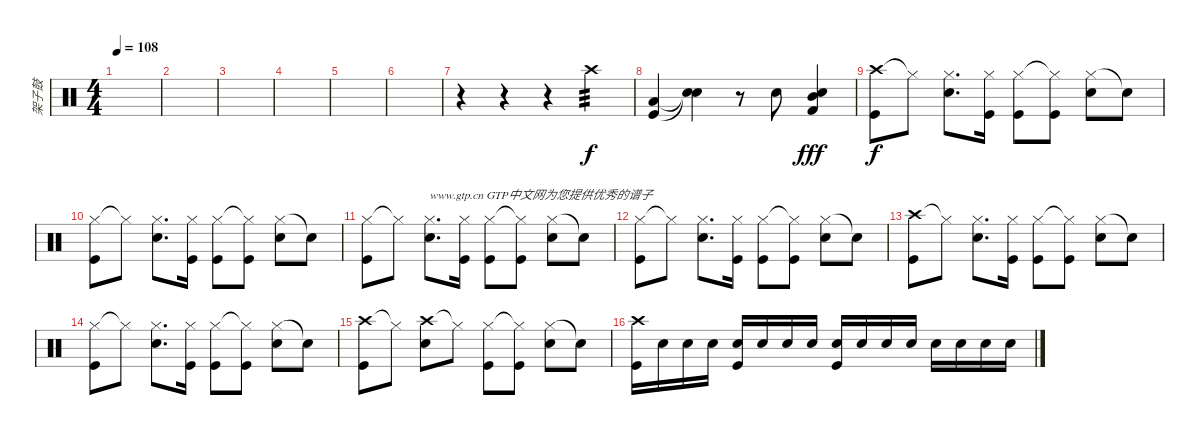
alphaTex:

\track ("架子鼓" "架子鼓") {instrument percussion}
\staff {score}
\articulation defaults
\ts (4 4)
\tempo 108
\clef neutral
\ks c
|
|
|
|
|
|
r.4 r.4 r.4 "Crash high (hit)".4{tp 3} |
("Low Tom (hit)" "Kick (hit)").4 ("Snare (hit)"{t} "Snare (hit)"{t}).4 r.8 "Snare (hit) 2".8 ("Mid Tom (hit)" "Snare (hit) 2" "Kick (hit) 2").4{dy fff} |
("Crash high (hit)" "Kick (hit)").8{dy f} "Hi-Hat (closed)"{t}.8 ("Hi-Hat (closed)" "Snare (hit) 2").8{d} ("Hi-Hat (closed)" "Kick (hit)").16 ("Hi-Hat (closed)" "Kick (hit)").8 ("Hi-Hat (closed)"{t} "Kick (hit)").8 ("Hi-Hat (closed)" "Snare (hit) 2").8 "Snare (hit)"{t}.8 |
("Hi-Hat (closed)" "Kick (hit)").8 "Hi-Hat (closed)"{t}.8 ("Hi-Hat (closed)" "Snare (hit) 2").8{d} ("Hi-Hat (closed)" "Kick (hit)").16 ("Hi-Hat (closed)" "Kick (hit)").8 ("Hi-Hat (closed)"{t} "Kick (hit)").8 ("Hi-Hat (closed)" "Snare (hit) 2").8 "Snare (hit)"{t}.8 |
("Hi-Hat (closed)" "Kick (hit)").8 "Hi-Hat (closed)"{t}.8 ("Hi-Hat (closed)" "Snare (hit) 2").8{d txt "www.gtp.cn GTP中文网为您提供优秀的谱子"} ("Hi-Hat (closed)" "Kick (hit)").16 ("Hi-Hat (closed)" "Kick (hit)").8 ("Hi-Hat (closed)"{t} "Kick (hit)").8 ("Hi-Hat (closed)" "Snare (hit) 2").8 "Snare (hit)"{t}.8 |
("Hi-Hat (closed)" "Kick (hit)").8 "Hi-Hat (closed)"{t}.8 ("Hi-Hat (closed)" "Snare (hit) 2").8{d} ("Hi-Hat (closed)" "Kick (hit)").16 ("Hi-Hat (closed)" "Kick (hit)").8 ("Hi-Hat (closed)"{t} "Kick (hit)").8 ("Hi-Hat (closed)" "Snare (hit) 2").8 "Snare (hit)"{t}.8 |
("Crash high (hit)" "Kick (hit)").8 "Hi-Hat (closed)"{t}.8 ("Hi-Hat (closed)" "Snare (hit) 2").8{d} ("Hi-Hat (closed)" "Kick (hit)").16 ("Hi-Hat (closed)" "Kick (hit)").8 ("Hi-Hat (closed)"{t} "Kick (hit)").8 ("Hi-Hat (closed)" "Snare (hit) 2").8 "Snare (hit)"{t}.8 |
("Hi-Hat (closed)" "Kick (hit)").8 "Hi-Hat (closed)"{t}.8 ("Hi-Hat (closed)" "Snare (hit) 2").8{d} ("Hi-Hat (closed)" "Kick (hit)").16 ("Hi-Hat (closed)" "Kick (hit)").8 ("Hi-Hat (closed)"{t} "Kick (hit)").8 ("Hi-Hat (closed)" "Snare (hit) 2").8 "Snare (hit)"{t}.8 |
("Crash high (hit)" "Kick (hit)").8 "Hi-Hat (closed)"{t}.8 ("Crash high (hit)" "Snare (hit) 2").8 "Hi-Hat (closed)"{t}.8 ("Hi-Hat (closed)" "Kick (hit)").8 ("Hi-Hat (closed)"{t} "Kick (hit)").8 ("Hi-Hat (closed)" "Snare (hit) 2").8 "Snare (hit)"{t}.8 |
("Crash high (hit)" "Kick (hit)").16 "Snare (hit) 2".16 "Snare (hit) 2".16 "Snare (hit) 2".16 ("Snare (hit) 2" "Kick (hit)").16 "Snare (hit) 2".16 "Snare (hit) 2".16 "Snare (hit) 2".16 ("Snare (hit) 2" "Kick (hit)").16 "Snare (hit) 2".16 "Snare (hit) 2".16 "Snare (hit) 2".16 "Snare (hit) 2".16 "Snare (hit) 2".16 "Snare (hit) 2".16 "Snare (hit) 2".16
